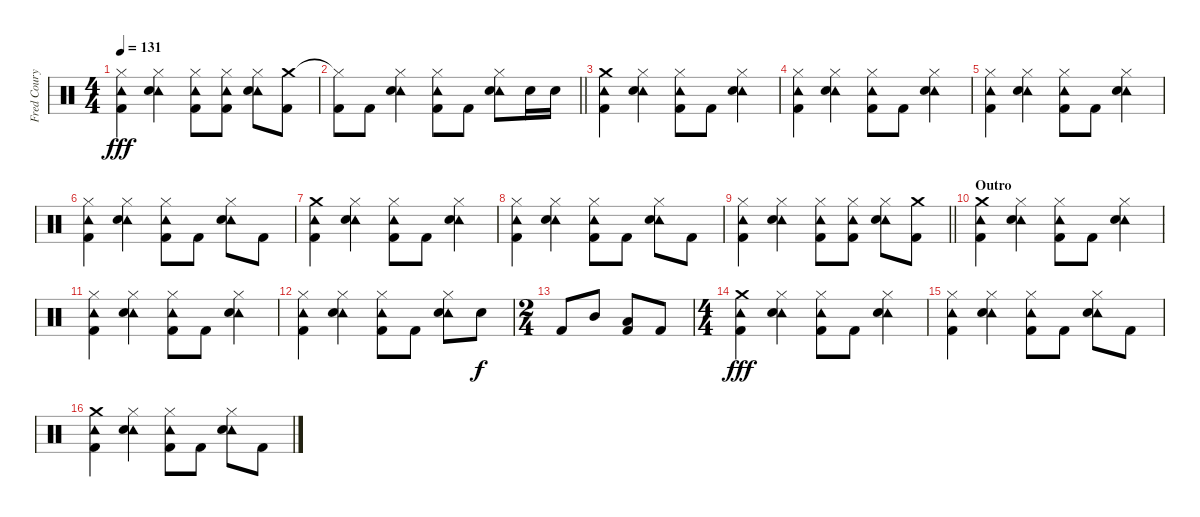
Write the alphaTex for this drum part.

\track ("Fred Coury - Drums" "Fred Coury") {instrument percussion}
\staff {score}
\articulation defaults
\ts (4 4)
\tempo 131
\clef neutral
\ks c
("Hi-Hat (closed)" "Tambourine (hit)" "Kick (hit) 2").4{dy fff} ("Hi-Hat (closed)" "Tambourine (hit)" "Snare (hit) 2").4 ("Hi-Hat (closed)" "Tambourine (hit)" "Kick (hit) 2").8 ("Hi-Hat (closed)" "Tambourine (hit)" "Kick (hit) 2").8 ("Hi-Hat (closed)" "Tambourine (hit)" "Snare (hit) 2").8 ("Crash medium (hit)" "Kick (hit) 2").8 |
\barLineRight lightlight
("Hi-Hat (closed)"{t} "Kick (hit) 2").8 "Kick (hit) 2".8 ("Hi-Hat (closed)" "Tambourine (hit)" "Snare (hit) 2").4 ("Hi-Hat (closed)" "Tambourine (hit)" "Kick (hit) 2").8 "Kick (hit) 2".8 ("Hi-Hat (closed)" "Tambourine (hit)" "Snare (hit) 2").8 "Snare (hit) 2".16 "Snare (hit) 2".16 |
("Crash medium (hit)" "Tambourine (hit)" "Kick (hit) 2").4 ("Hi-Hat (closed)" "Tambourine (hit)" "Snare (hit) 2").4 ("Hi-Hat (closed)" "Tambourine (hit)" "Kick (hit) 2").8 "Kick (hit) 2".8 ("Hi-Hat (closed)" "Tambourine (hit)" "Snare (hit) 2").4 |
("Hi-Hat (closed)" "Tambourine (hit)" "Kick (hit) 2").4 ("Hi-Hat (closed)" "Tambourine (hit)" "Snare (hit) 2").4 ("Hi-Hat (closed)" "Tambourine (hit)" "Kick (hit) 2").8 "Kick (hit) 2".8 ("Hi-Hat (closed)" "Tambourine (hit)" "Snare (hit) 2").4 |
("Hi-Hat (closed)" "Tambourine (hit)" "Kick (hit) 2").4 ("Hi-Hat (closed)" "Tambourine (hit)" "Snare (hit) 2").4 ("Hi-Hat (closed)" "Tambourine (hit)" "Kick (hit) 2").8 "Kick (hit) 2".8 ("Hi-Hat (closed)" "Tambourine (hit)" "Snare (hit) 2").4 |
("Hi-Hat (closed)" "Tambourine (hit)" "Kick (hit) 2").4 ("Hi-Hat (closed)" "Tambourine (hit)" "Snare (hit) 2").4 ("Hi-Hat (closed)" "Tambourine (hit)" "Kick (hit) 2").8 "Kick (hit) 2".8 ("Hi-Hat (closed)" "Tambourine (hit)" "Snare (hit) 2").8 "Kick (hit) 2".8 |
("Crash medium (hit)" "Tambourine (hit)" "Kick (hit) 2").4 ("Hi-Hat (closed)" "Tambourine (hit)" "Snare (hit) 2").4 ("Hi-Hat (closed)" "Tambourine (hit)" "Kick (hit) 2").8 "Kick (hit) 2".8 ("Hi-Hat (closed)" "Tambourine (hit)" "Snare (hit) 2").4 |
("Hi-Hat (closed)" "Tambourine (hit)" "Kick (hit) 2").4 ("Hi-Hat (closed)" "Tambourine (hit)" "Snare (hit) 2").4 ("Hi-Hat (closed)" "Tambourine (hit)" "Kick (hit) 2").8 "Kick (hit) 2".8 ("Hi-Hat (closed)" "Tambourine (hit)" "Snare (hit) 2").8 "Kick (hit) 2".8 |
\barLineRight lightlight
("Hi-Hat (closed)" "Tambourine (hit)" "Kick (hit) 2").4 ("Hi-Hat (closed)" "Tambourine (hit)" "Snare (hit) 2").4 ("Hi-Hat (closed)" "Tambourine (hit)" "Kick (hit) 2").8 ("Hi-Hat (closed)" "Tambourine (hit)" "Kick (hit) 2").8 ("Hi-Hat (closed)" "Tambourine (hit)" "Snare (hit) 2").8 ("Crash medium (hit)" "Kick (hit) 2").8 |
\section ("" "Outro")
("Crash medium (hit)" "Tambourine (hit)" "Kick (hit) 2").4 ("Hi-Hat (closed)" "Tambourine (hit)" "Snare (hit) 2").4 ("Hi-Hat (closed)" "Tambourine (hit)" "Kick (hit) 2").8 "Kick (hit) 2".8 ("Hi-Hat (closed)" "Tambourine (hit)" "Snare (hit) 2").4 |
("Hi-Hat (closed)" "Tambourine (hit)" "Kick (hit) 2").4 ("Hi-Hat (closed)" "Tambourine (hit)" "Snare (hit) 2").4 ("Hi-Hat (closed)" "Tambourine (hit)" "Kick (hit) 2").8 "Kick (hit) 2".8 ("Hi-Hat (closed)" "Tambourine (hit)" "Snare (hit) 2").4 |
("Hi-Hat (closed)" "Tambourine (hit)" "Kick (hit) 2").4 ("Hi-Hat (closed)" "Tambourine (hit)" "Snare (hit) 2").4 ("Hi-Hat (closed)" "Tambourine (hit)" "Kick (hit) 2").8 "Kick (hit) 2".8 ("Hi-Hat (closed)" "Tambourine (hit)" "Snare (hit) 2").8 "Snare (hit) 2".8{dy f} |
\ts (2 4)
"Kick (hit) 2".8 "Mid Tom (hit)".8 ("Low Tom (hit)" "Kick (hit) 2").8 "Kick (hit) 2".8 |
\ts (4 4)
("Crash medium (hit)" "Tambourine (hit)" "Kick (hit) 2").4{dy fff} ("Hi-Hat (closed)" "Tambourine (hit)" "Snare (hit) 2").4 ("Hi-Hat (closed)" "Tambourine (hit)" "Kick (hit) 2").8 "Kick (hit) 2".8 ("Hi-Hat (closed)" "Tambourine (hit)" "Snare (hit) 2").4 |
("Hi-Hat (closed)" "Tambourine (hit)" "Kick (hit) 2").4 ("Hi-Hat (closed)" "Tambourine (hit)" "Snare (hit) 2").4 ("Hi-Hat (closed)" "Tambourine (hit)" "Kick (hit) 2").8 "Kick (hit) 2".8 ("Hi-Hat (closed)" "Tambourine (hit)" "Snare (hit) 2").8 "Kick (hit) 2".8 |
("Crash medium (hit)" "Tambourine (hit)" "Kick (hit) 2").4 ("Hi-Hat (closed)" "Tambourine (hit)" "Snare (hit) 2").4 ("Hi-Hat (closed)" "Tambourine (hit)" "Kick (hit) 2").8 "Kick (hit) 2".8 ("Hi-Hat (closed)" "Tambourine (hit)" "Snare (hit) 2").8 "Kick (hit) 2".8
